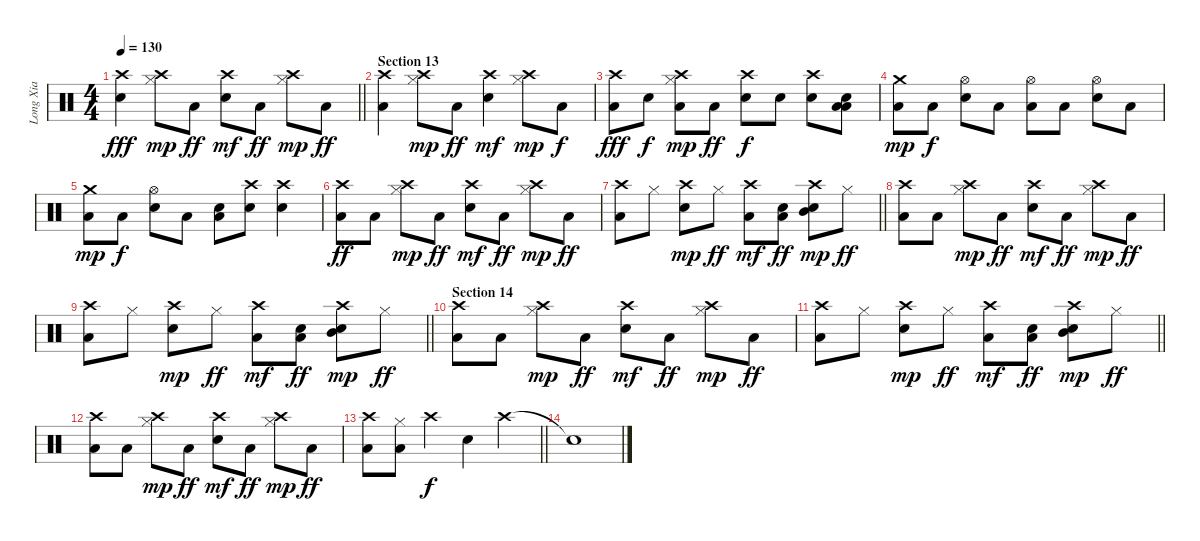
\track ("Long Xia" "Long Xia") {instrument percussion}
\staff {score}
\articulation defaults
\ts (4 4)
\tempo 130
\clef neutral
\barLineRight lightlight
\ks c
("Electric Snare (hit)" "Crash high (hit)").4{dy fff} ("Hi-Hat (closed)" "Crash high (hit)").8{dy mp} "Low Floor Tom (hit)".8{dy ff} ("Electric Snare (hit)" "Crash high (hit)").8{dy mf} "Low Floor Tom (hit)".8{dy ff} ("Hi-Hat (closed)" "Crash high (hit)").8{dy mp} "Low Floor Tom (hit)".8{dy ff} |
\section ("" "Section 13")
("Low Floor Tom (hit)" "Crash high (hit)").4 ("Hi-Hat (closed)" "Crash high (hit)").8{dy mp} "Low Floor Tom (hit)".8{dy ff} ("Electric Snare (hit)" "Crash high (hit)").4{dy mf} ("Hi-Hat (closed)" "Crash high (hit)").8{dy mp} "Low Floor Tom (hit)".8{dy f} |
("Low Floor Tom (hit)" "Crash high (hit)").8{dy fff} "Electric Snare (hit)".8{dy f} ("Low Floor Tom (hit)" "Hi-Hat (closed)" "Crash high (hit)").8{dy mp} "Low Floor Tom (hit)".8{dy ff} ("Electric Snare (hit)" "Crash high (hit)").8{dy f} "Electric Snare (hit)".8 ("Electric Snare (hit)" "Crash high (hit)").8 ("Electric Snare (hit)" "Low Floor Tom (hit)" "Low Floor Tom (hit)").8 |
("Low Floor Tom (hit)" "Crash medium (hit)").8{dy mp} "Low Floor Tom (hit)".8{dy f} ("Electric Snare (hit)" "Hi-Hat (open)").8 "Low Floor Tom (hit)".8 ("Low Floor Tom (hit)" "Hi-Hat (open)").8 "Low Floor Tom (hit)".8 ("Electric Snare (hit)" "Hi-Hat (open)").8 "Low Floor Tom (hit)".8 |
("Low Floor Tom (hit)" "Crash medium (hit)").8{dy mp} "Low Floor Tom (hit)".8{dy f} ("Electric Snare (hit)" "Hi-Hat (open)").8 "Low Floor Tom (hit)".8 ("Low Floor Tom (hit)" "Electric Snare (hit)").8 ("Electric Snare (hit)" "Crash high (hit)").8 ("Electric Snare (hit)" "Crash high (hit)").4 |
("Low Floor Tom (hit)" "Crash high (hit)").8{dy ff} "Low Floor Tom (hit)".8 ("Hi-Hat (closed)" "Crash high (hit)").8{dy mp} "Low Floor Tom (hit)".8{dy ff} ("Electric Snare (hit)" "Crash high (hit)").8{dy mf} "Low Floor Tom (hit)".8{dy ff} ("Hi-Hat (closed)" "Crash high (hit)").8{dy mp} "Low Floor Tom (hit)".8{dy ff} |
\barLineRight lightlight
("Low Floor Tom (hit)" "Crash high (hit)").8 "Hi-Hat (closed)".8 ("Electric Snare (hit)" "Crash high (hit)").8{dy mp} "Hi-Hat (closed)".8{dy ff} ("Low Floor Tom (hit)" "Crash high (hit)").8{dy mf} ("Electric Snare (hit)" "Low Tom (hit)").8{dy ff} ("Electric Snare (hit)" "Mid Tom (hit)" "Crash high (hit)").8{dy mp} "Hi-Hat (closed)".8{dy ff} |
("Low Floor Tom (hit)" "Crash high (hit)").8 "Low Floor Tom (hit)".8 ("Hi-Hat (closed)" "Crash high (hit)").8{dy mp} "Low Floor Tom (hit)".8{dy ff} ("Electric Snare (hit)" "Crash high (hit)").8{dy mf} "Low Floor Tom (hit)".8{dy ff} ("Hi-Hat (closed)" "Crash high (hit)").8{dy mp} "Low Floor Tom (hit)".8{dy ff} |
\barLineRight lightlight
("Low Floor Tom (hit)" "Crash high (hit)").8 "Hi-Hat (closed)".8 ("Electric Snare (hit)" "Crash high (hit)").8{dy mp} "Hi-Hat (closed)".8{dy ff} ("Low Floor Tom (hit)" "Crash high (hit)").8{dy mf} ("Electric Snare (hit)" "Low Tom (hit)").8{dy ff} ("Electric Snare (hit)" "Mid Tom (hit)" "Crash high (hit)").8{dy mp} "Hi-Hat (closed)".8{dy ff} |
\section ("" "Section 14")
("Low Floor Tom (hit)" "Crash high (hit)").8 "Low Floor Tom (hit)".8 ("Hi-Hat (closed)" "Crash high (hit)").8{dy mp} "Low Floor Tom (hit)".8{dy ff} ("Electric Snare (hit)" "Crash high (hit)").8{dy mf} "Low Floor Tom (hit)".8{dy ff} ("Hi-Hat (closed)" "Crash high (hit)").8{dy mp} "Low Floor Tom (hit)".8{dy ff} |
\barLineRight lightlight
("Low Floor Tom (hit)" "Crash high (hit)").8 "Hi-Hat (closed)".8 ("Electric Snare (hit)" "Crash high (hit)").8{dy mp} "Hi-Hat (closed)".8{dy ff} ("Low Floor Tom (hit)" "Crash high (hit)").8{dy mf} ("Electric Snare (hit)" "Low Tom (hit)").8{dy ff} ("Electric Snare (hit)" "Mid Tom (hit)" "Crash high (hit)").8{dy mp} "Hi-Hat (closed)".8{dy ff} |
("Low Floor Tom (hit)" "Crash high (hit)").8 "Low Floor Tom (hit)".8 ("Hi-Hat (closed)" "Crash high (hit)").8{dy mp} "Low Floor Tom (hit)".8{dy ff} ("Electric Snare (hit)" "Crash high (hit)").8{dy mf} "Low Floor Tom (hit)".8{dy ff} ("Hi-Hat (closed)" "Crash high (hit)").8{dy mp} "Low Floor Tom (hit)".8{dy ff} |
\barLineRight lightlight
("Low Floor Tom (hit)" "Crash high (hit)").8 ("Low Floor Tom (hit)" "Hi-Hat (closed)").8 "Crash high (hit)".4{dy f} "Electric Snare (hit)".4 "Crash high (hit)".4 |
"Snare (hit)"{t}.1
